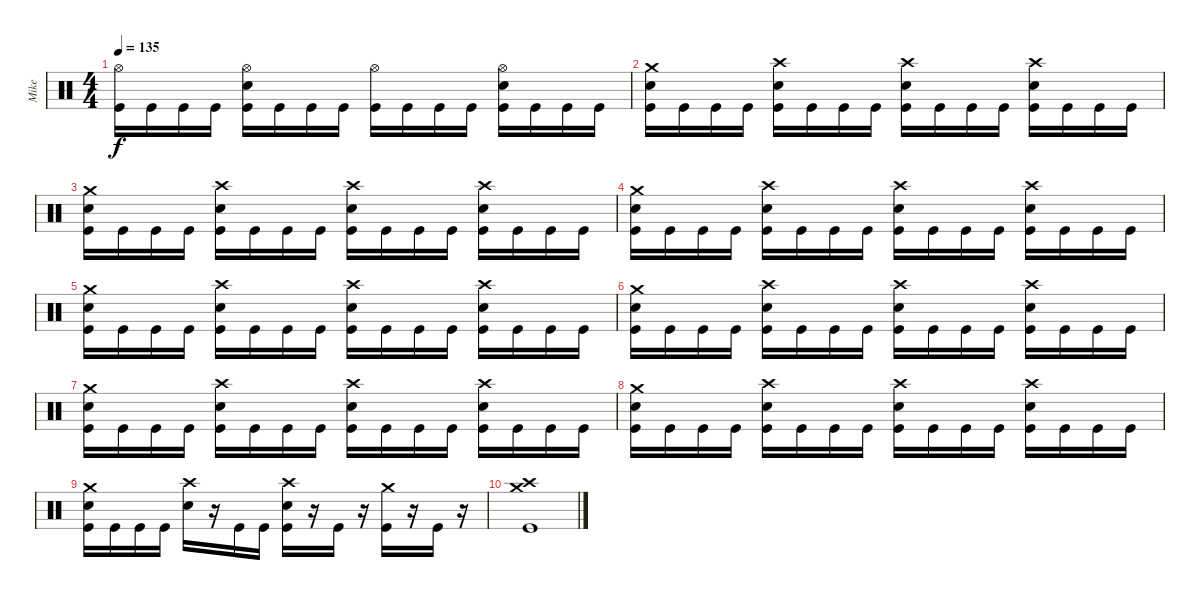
\track ("Mike" "Mike") {instrument percussion}
\staff {score}
\articulation defaults
\ts (4 4)
\tempo 135
\clef neutral
\ks c
("Hi-Hat (open)" "Kick (hit)").16{dy f} "Kick (hit)".16 "Kick (hit)".16 "Kick (hit)".16 ("Hi-Hat (open)" "Electric Snare (hit)" "Kick (hit)").16 "Kick (hit)".16 "Kick (hit)".16 "Kick (hit)".16 ("Hi-Hat (open)" "Kick (hit)").16 "Kick (hit)".16 "Kick (hit)".16 "Kick (hit)".16 ("Hi-Hat (open)" "Electric Snare (hit)" "Kick (hit)").16 "Kick (hit)".16 "Kick (hit)".16 "Kick (hit)".16 |
("Crash medium (hit)" "Electric Snare (hit)" "Kick (hit)").16 "Kick (hit)".16 "Kick (hit)".16 "Kick (hit)".16 ("Crash high (hit)" "Electric Snare (hit)" "Kick (hit)").16 "Kick (hit)".16 "Kick (hit)".16 "Kick (hit)".16 ("Crash high (hit)" "Electric Snare (hit)" "Kick (hit)").16 "Kick (hit)".16 "Kick (hit)".16 "Kick (hit)".16 ("Crash high (hit)" "Electric Snare (hit)" "Kick (hit)").16 "Kick (hit)".16 "Kick (hit)".16 "Kick (hit)".16 |
("Crash medium (hit)" "Electric Snare (hit)" "Kick (hit)").16 "Kick (hit)".16 "Kick (hit)".16 "Kick (hit)".16 ("Crash high (hit)" "Electric Snare (hit)" "Kick (hit)").16 "Kick (hit)".16 "Kick (hit)".16 "Kick (hit)".16 ("Crash high (hit)" "Electric Snare (hit)" "Kick (hit)").16 "Kick (hit)".16 "Kick (hit)".16 "Kick (hit)".16 ("Crash high (hit)" "Electric Snare (hit)" "Kick (hit)").16 "Kick (hit)".16 "Kick (hit)".16 "Kick (hit)".16 |
("Crash medium (hit)" "Electric Snare (hit)" "Kick (hit)").16 "Kick (hit)".16 "Kick (hit)".16 "Kick (hit)".16 ("Crash high (hit)" "Electric Snare (hit)" "Kick (hit)").16 "Kick (hit)".16 "Kick (hit)".16 "Kick (hit)".16 ("Crash high (hit)" "Electric Snare (hit)" "Kick (hit)").16 "Kick (hit)".16 "Kick (hit)".16 "Kick (hit)".16 ("Crash high (hit)" "Electric Snare (hit)" "Kick (hit)").16 "Kick (hit)".16 "Kick (hit)".16 "Kick (hit)".16 |
("Crash medium (hit)" "Electric Snare (hit)" "Kick (hit)").16 "Kick (hit)".16 "Kick (hit)".16 "Kick (hit)".16 ("Crash high (hit)" "Electric Snare (hit)" "Kick (hit)").16 "Kick (hit)".16 "Kick (hit)".16 "Kick (hit)".16 ("Crash high (hit)" "Electric Snare (hit)" "Kick (hit)").16 "Kick (hit)".16 "Kick (hit)".16 "Kick (hit)".16 ("Crash high (hit)" "Electric Snare (hit)" "Kick (hit)").16 "Kick (hit)".16 "Kick (hit)".16 "Kick (hit)".16 |
("Crash medium (hit)" "Electric Snare (hit)" "Kick (hit)").16 "Kick (hit)".16 "Kick (hit)".16 "Kick (hit)".16 ("Crash high (hit)" "Electric Snare (hit)" "Kick (hit)").16 "Kick (hit)".16 "Kick (hit)".16 "Kick (hit)".16 ("Crash high (hit)" "Electric Snare (hit)" "Kick (hit)").16 "Kick (hit)".16 "Kick (hit)".16 "Kick (hit)".16 ("Crash high (hit)" "Electric Snare (hit)" "Kick (hit)").16 "Kick (hit)".16 "Kick (hit)".16 "Kick (hit)".16 |
("Crash medium (hit)" "Electric Snare (hit)" "Kick (hit)").16 "Kick (hit)".16 "Kick (hit)".16 "Kick (hit)".16 ("Crash high (hit)" "Electric Snare (hit)" "Kick (hit)").16 "Kick (hit)".16 "Kick (hit)".16 "Kick (hit)".16 ("Crash high (hit)" "Electric Snare (hit)" "Kick (hit)").16 "Kick (hit)".16 "Kick (hit)".16 "Kick (hit)".16 ("Crash high (hit)" "Electric Snare (hit)" "Kick (hit)").16 "Kick (hit)".16 "Kick (hit)".16 "Kick (hit)".16 |
("Crash medium (hit)" "Electric Snare (hit)" "Kick (hit)").16 "Kick (hit)".16 "Kick (hit)".16 "Kick (hit)".16 ("Crash high (hit)" "Electric Snare (hit)" "Kick (hit)").16 "Kick (hit)".16 "Kick (hit)".16 "Kick (hit)".16 ("Crash high (hit)" "Electric Snare (hit)" "Kick (hit)").16 "Kick (hit)".16 "Kick (hit)".16 "Kick (hit)".16 ("Crash high (hit)" "Electric Snare (hit)" "Kick (hit)").16 "Kick (hit)".16 "Kick (hit)".16 "Kick (hit)".16 |
("Crash medium (hit)" "Electric Snare (hit)" "Kick (hit)").16 "Kick (hit)".16 "Kick (hit)".16 "Kick (hit)".16 ("Crash high (hit)" "Electric Snare (hit)").16 r.16 "Kick (hit)".16 "Kick (hit)".16 ("Crash high (hit)" "Electric Snare (hit)" "Kick (hit)").16 r.16 "Kick (hit)".16 r.16 ("Crash medium (hit)" "Kick (hit)").16 r.16 "Kick (hit)".16 r.16 |
("Crash medium (hit)" "Crash high (hit)" "Kick (hit)").1
